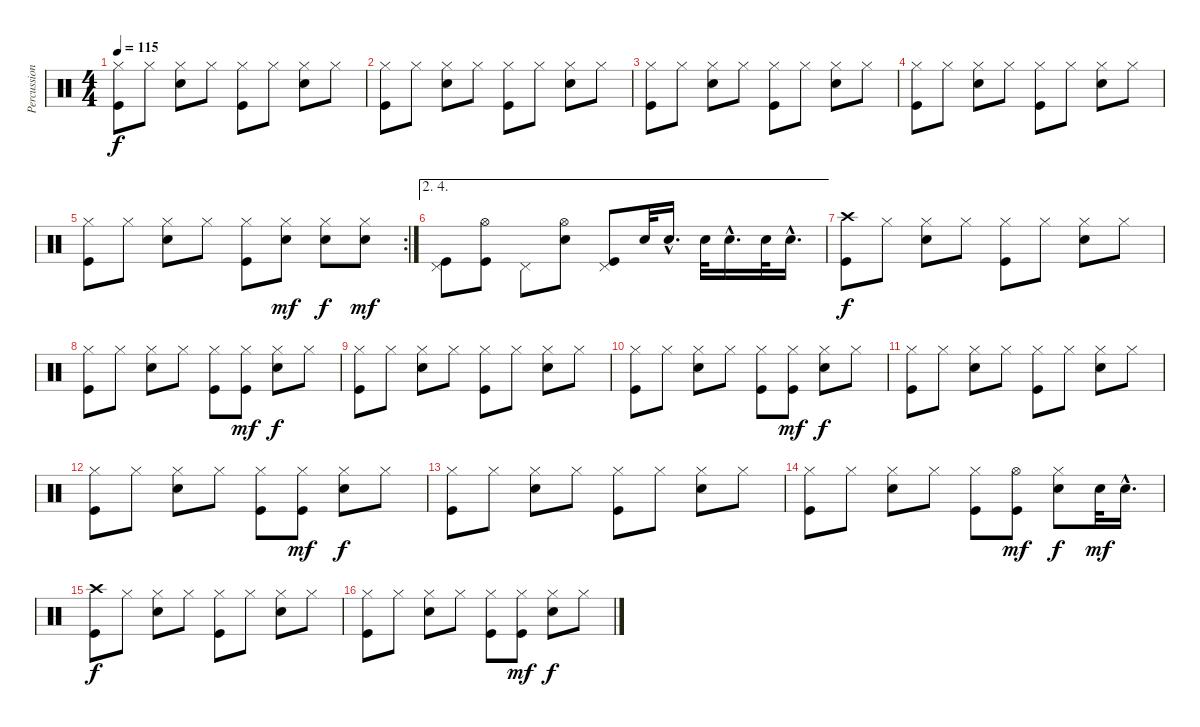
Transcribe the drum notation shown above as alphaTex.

\track ("Percussion" "Percussion") {instrument percussion}
\staff {score}
\articulation defaults
\ts (4 4)
\tempo 115
\clef neutral
\ks c
("Hi-Hat (closed)" "Kick (hit)").8{dy f} "Hi-Hat (closed)".8 ("Hi-Hat (closed)" "Snare (hit) 2").8 "Hi-Hat (closed)".8 ("Hi-Hat (closed)" "Kick (hit)").8 "Hi-Hat (closed)".8 ("Hi-Hat (closed)" "Snare (hit) 2").8 "Hi-Hat (closed)".8 |
("Hi-Hat (closed)" "Kick (hit)").8 "Hi-Hat (closed)".8 ("Hi-Hat (closed)" "Snare (hit) 2").8 "Hi-Hat (closed)".8 ("Hi-Hat (closed)" "Kick (hit)").8 "Hi-Hat (closed)".8 ("Hi-Hat (closed)" "Snare (hit) 2").8 "Hi-Hat (closed)".8 |
("Hi-Hat (closed)" "Kick (hit)").8 "Hi-Hat (closed)".8 ("Hi-Hat (closed)" "Snare (hit) 2").8 "Hi-Hat (closed)".8 ("Hi-Hat (closed)" "Kick (hit)").8 "Hi-Hat (closed)".8 ("Hi-Hat (closed)" "Snare (hit) 2").8 "Hi-Hat (closed)".8 |
("Hi-Hat (closed)" "Kick (hit)").8 "Hi-Hat (closed)".8 ("Hi-Hat (closed)" "Snare (hit) 2").8 "Hi-Hat (closed)".8 ("Hi-Hat (closed)" "Kick (hit)").8 "Hi-Hat (closed)".8 ("Hi-Hat (closed)" "Snare (hit) 2").8 "Hi-Hat (closed)".8 |
\rc 2
("Hi-Hat (closed)" "Kick (hit)").8 "Hi-Hat (closed)".8 ("Hi-Hat (closed)" "Snare (hit) 2").8 "Hi-Hat (closed)".8 ("Hi-Hat (closed)" "Kick (hit)").8 ("Hi-Hat (closed)" "Snare (hit) 2").8{dy mf} ("Hi-Hat (closed)" "Snare (hit) 2").8{dy f} ("Hi-Hat (closed)" "Snare (hit) 2").8{dy mf} |
\ae (2 4)
("Pedal Hi-Hat (hit)" "Kick (hit)").8 ("Hi-Hat (open)" "Kick (hit)").8 "Pedal Hi-Hat (hit)".8 ("Hi-Hat (open)" "Snare (hit) 2").8 ("Pedal Hi-Hat (hit)" "Kick (hit)").8 "Snare (hit) 2".32 "Snare (hit) 2"{hac}.16{d} "Snare (hit) 2".32 "Snare (hit) 2"{hac}.16{d} "Snare (hit) 2".32 "Snare (hit) 2"{hac}.16{d} |
("Crash high (hit)" "Kick (hit)").8{dy f} "Hi-Hat (closed)".8 ("Hi-Hat (closed)" "Snare (hit) 2").8 "Hi-Hat (closed)".8 ("Hi-Hat (closed)" "Kick (hit)").8 "Hi-Hat (closed)".8 ("Hi-Hat (closed)" "Snare (hit) 2").8 "Hi-Hat (closed)".8 |
("Hi-Hat (closed)" "Kick (hit)").8 "Hi-Hat (closed)".8 ("Hi-Hat (closed)" "Snare (hit) 2").8 "Hi-Hat (closed)".8 ("Hi-Hat (closed)" "Kick (hit)").8 ("Hi-Hat (closed)" "Kick (hit)").8{dy mf} ("Hi-Hat (closed)" "Snare (hit) 2").8{dy f} "Hi-Hat (closed)".8 |
("Hi-Hat (closed)" "Kick (hit)").8 "Hi-Hat (closed)".8 ("Hi-Hat (closed)" "Snare (hit) 2").8 "Hi-Hat (closed)".8 ("Hi-Hat (closed)" "Kick (hit)").8 "Hi-Hat (closed)".8 ("Hi-Hat (closed)" "Snare (hit) 2").8 "Hi-Hat (closed)".8 |
("Hi-Hat (closed)" "Kick (hit)").8 "Hi-Hat (closed)".8 ("Hi-Hat (closed)" "Snare (hit) 2").8 "Hi-Hat (closed)".8 ("Hi-Hat (closed)" "Kick (hit)").8 ("Hi-Hat (closed)" "Kick (hit)").8{dy mf} ("Hi-Hat (closed)" "Snare (hit) 2").8{dy f} "Hi-Hat (closed)".8 |
("Hi-Hat (closed)" "Kick (hit)").8 "Hi-Hat (closed)".8 ("Hi-Hat (closed)" "Snare (hit) 2").8 "Hi-Hat (closed)".8 ("Hi-Hat (closed)" "Kick (hit)").8 "Hi-Hat (closed)".8 ("Hi-Hat (closed)" "Snare (hit) 2").8 "Hi-Hat (closed)".8 |
("Hi-Hat (closed)" "Kick (hit)").8 "Hi-Hat (closed)".8 ("Hi-Hat (closed)" "Snare (hit) 2").8 "Hi-Hat (closed)".8 ("Hi-Hat (closed)" "Kick (hit)").8 ("Hi-Hat (closed)" "Kick (hit)").8{dy mf} ("Hi-Hat (closed)" "Snare (hit) 2").8{dy f} "Hi-Hat (closed)".8 |
("Hi-Hat (closed)" "Kick (hit)").8 "Hi-Hat (closed)".8 ("Hi-Hat (closed)" "Snare (hit) 2").8 "Hi-Hat (closed)".8 ("Hi-Hat (closed)" "Kick (hit)").8 "Hi-Hat (closed)".8 ("Hi-Hat (closed)" "Snare (hit) 2").8 "Hi-Hat (closed)".8 |
("Hi-Hat (closed)" "Kick (hit)").8 "Hi-Hat (closed)".8 ("Hi-Hat (closed)" "Snare (hit) 2").8 "Hi-Hat (closed)".8 ("Hi-Hat (closed)" "Kick (hit)").8 ("Hi-Hat (open)" "Kick (hit)").8{dy mf} ("Hi-Hat (closed)" "Snare (hit) 2").8{dy f} "Snare (hit) 2".32{dy mf} "Snare (hit) 2"{hac}.16{d} |
("Crash high (hit)" "Kick (hit)").8{dy f} "Hi-Hat (closed)".8 ("Hi-Hat (closed)" "Snare (hit) 2").8 "Hi-Hat (closed)".8 ("Hi-Hat (closed)" "Kick (hit)").8 "Hi-Hat (closed)".8 ("Hi-Hat (closed)" "Snare (hit) 2").8 "Hi-Hat (closed)".8 |
("Hi-Hat (closed)" "Kick (hit)").8 "Hi-Hat (closed)".8 ("Hi-Hat (closed)" "Snare (hit) 2").8 "Hi-Hat (closed)".8 ("Hi-Hat (closed)" "Kick (hit)").8 ("Hi-Hat (closed)" "Kick (hit)").8{dy mf} ("Hi-Hat (closed)" "Snare (hit) 2").8{dy f} "Hi-Hat (closed)".8
